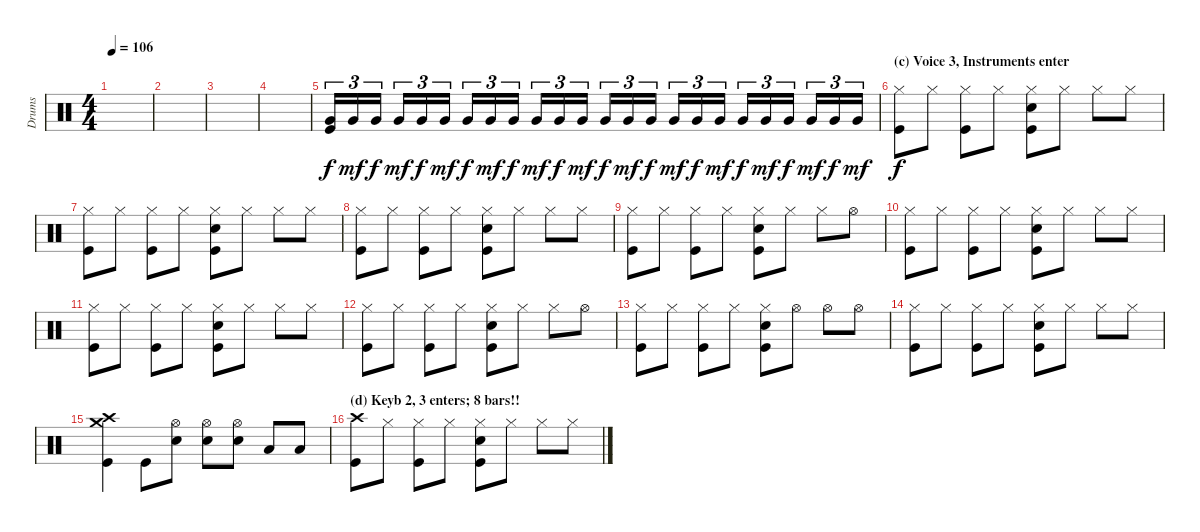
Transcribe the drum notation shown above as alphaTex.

\track ("Drums" "Drums") {instrument percussion}
\staff {score}
\articulation defaults
\ts (4 4)
\tempo 106
\clef neutral
\ks c
|
|
|
|
("Very Low Tom (hit)" "Kick (hit)").16{tu (3 2)} "Very Low Tom (hit)".16{tu (3 2) dy mf} "Very Low Tom (hit)".16{tu (3 2) dy f} "Very Low Tom (hit)".16{tu (3 2) dy mf} "Very Low Tom (hit)".16{tu (3 2) dy f} "Very Low Tom (hit)".16{tu (3 2) dy mf} "Very Low Tom (hit)".16{tu (3 2) dy f} "Very Low Tom (hit)".16{tu (3 2) dy mf} "Very Low Tom (hit)".16{tu (3 2) dy f} "Very Low Tom (hit)".16{tu (3 2) dy mf} "Very Low Tom (hit)".16{tu (3 2) dy f} "Very Low Tom (hit)".16{tu (3 2) dy mf} "Very Low Tom (hit)".16{tu (3 2) dy f} "Very Low Tom (hit)".16{tu (3 2) dy mf} "Very Low Tom (hit)".16{tu (3 2) dy f} "Very Low Tom (hit)".16{tu (3 2) dy mf} "Very Low Tom (hit)".16{tu (3 2) dy f} "Very Low Tom (hit)".16{tu (3 2) dy mf} "Very Low Tom (hit)".16{tu (3 2) dy f} "Very Low Tom (hit)".16{tu (3 2) dy mf} "Very Low Tom (hit)".16{tu (3 2) dy f} "Very Low Tom (hit)".16{tu (3 2) dy mf} "Very Low Tom (hit)".16{tu (3 2) dy f} "Very Low Tom (hit)".16{tu (3 2) dy mf} |
\section ("" "(c) Voice 3, Instruments enter")
("Hi-Hat (closed)" "Kick (hit)").8{dy f} "Hi-Hat (closed)".8 ("Hi-Hat (closed)" "Kick (hit)").8 "Hi-Hat (closed)".8 ("Hi-Hat (closed)" "Snare (hit) 2" "Kick (hit)").8 "Hi-Hat (closed)".8 "Hi-Hat (closed)".8 "Hi-Hat (closed)".8 |
("Hi-Hat (closed)" "Kick (hit)").8 "Hi-Hat (closed)".8 ("Hi-Hat (closed)" "Kick (hit)").8 "Hi-Hat (closed)".8 ("Hi-Hat (closed)" "Snare (hit) 2" "Kick (hit)").8 "Hi-Hat (closed)".8 "Hi-Hat (closed)".8 "Hi-Hat (closed)".8 |
("Hi-Hat (closed)" "Kick (hit)").8 "Hi-Hat (closed)".8 ("Hi-Hat (closed)" "Kick (hit)").8 "Hi-Hat (closed)".8 ("Hi-Hat (closed)" "Snare (hit) 2" "Kick (hit)").8 "Hi-Hat (closed)".8 "Hi-Hat (closed)".8 "Hi-Hat (closed)".8 |
("Hi-Hat (closed)" "Kick (hit)").8 "Hi-Hat (closed)".8 ("Hi-Hat (closed)" "Kick (hit)").8 "Hi-Hat (closed)".8 ("Hi-Hat (closed)" "Snare (hit) 2" "Kick (hit)").8 "Hi-Hat (closed)".8 "Hi-Hat (closed)".8 "Hi-Hat (open)".8 |
("Hi-Hat (closed)" "Kick (hit)").8 "Hi-Hat (closed)".8 ("Hi-Hat (closed)" "Kick (hit)").8 "Hi-Hat (closed)".8 ("Hi-Hat (closed)" "Snare (hit) 2" "Kick (hit)").8 "Hi-Hat (closed)".8 "Hi-Hat (closed)".8 "Hi-Hat (closed)".8 |
("Hi-Hat (closed)" "Kick (hit)").8 "Hi-Hat (closed)".8 ("Hi-Hat (closed)" "Kick (hit)").8 "Hi-Hat (closed)".8 ("Hi-Hat (closed)" "Snare (hit) 2" "Kick (hit)").8 "Hi-Hat (closed)".8 "Hi-Hat (closed)".8 "Hi-Hat (closed)".8 |
("Hi-Hat (closed)" "Kick (hit)").8 "Hi-Hat (closed)".8 ("Hi-Hat (closed)" "Kick (hit)").8 "Hi-Hat (closed)".8 ("Hi-Hat (closed)" "Snare (hit) 2" "Kick (hit)").8 "Hi-Hat (closed)".8 "Hi-Hat (closed)".8 "Hi-Hat (open)".8 |
("Hi-Hat (closed)" "Kick (hit)").8 "Hi-Hat (closed)".8 ("Hi-Hat (closed)" "Kick (hit)").8 "Hi-Hat (closed)".8 ("Hi-Hat (closed)" "Snare (hit) 2" "Kick (hit)").8 "Hi-Hat (open)".8 "Hi-Hat (open)".8 "Hi-Hat (open)".8 |
("Hi-Hat (closed)" "Kick (hit)").8 "Hi-Hat (closed)".8 ("Hi-Hat (closed)" "Kick (hit)").8 "Hi-Hat (closed)".8 ("Hi-Hat (closed)" "Snare (hit) 2" "Kick (hit)").8 "Hi-Hat (closed)".8 "Hi-Hat (closed)".8 "Hi-Hat (closed)".8 |
("Crash high (hit)" "Crash medium (hit)" "Kick (hit)").4 "Kick (hit)".8 ("Hi-Hat (open)" "Snare (hit) 2").8 ("Hi-Hat (open)" "Snare (hit) 2").8 ("Hi-Hat (open)" "Snare (hit) 2").8 "Low Tom (hit)".8 "Low Tom (hit)".8 |
\section ("" "(d) Keyb 2, 3 enters; 8 bars!!")
("Crash high (hit)" "Kick (hit)").8 "Hi-Hat (closed)".8 ("Hi-Hat (closed)" "Kick (hit)").8 "Hi-Hat (closed)".8 ("Hi-Hat (closed)" "Snare (hit) 2" "Kick (hit)").8 "Hi-Hat (closed)".8 "Hi-Hat (closed)".8 "Hi-Hat (closed)".8
